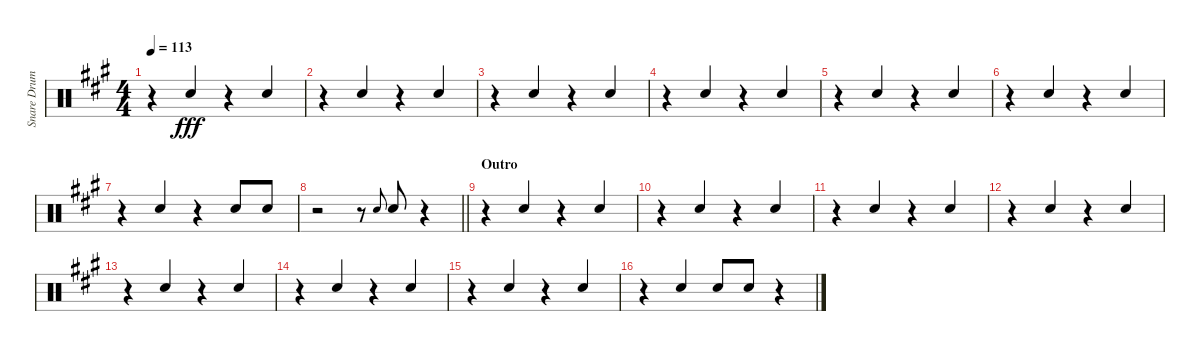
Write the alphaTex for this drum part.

\track ("Snare Drum" "Snare Drum") {instrument percussion}
\staff {score}
\articulation defaults
\ts (4 4)
\tempo 113
\clef neutral
\ks f#minor
r.4{dy fff} "Electric Snare (hit)".4{beam Up} r.4 "Electric Snare (hit)".4{beam Up} |
r.4 "Electric Snare (hit)".4{beam Up} r.4 "Electric Snare (hit)".4{beam Up} |
r.4 "Electric Snare (hit)".4{beam Up} r.4 "Electric Snare (hit)".4{beam Up} |
r.4 "Electric Snare (hit)".4{beam Up} r.4 "Electric Snare (hit)".4{beam Up} |
r.4 "Electric Snare (hit)".4{beam Up} r.4 "Electric Snare (hit)".4{beam Up} |
r.4 "Electric Snare (hit)".4{beam Up} r.4 "Electric Snare (hit)".4{beam Up} |
r.4 "Electric Snare (hit)".4{beam Up} r.4 "Electric Snare (hit)".8{beam Up} "Electric Snare (hit)".8{beam Up} |
\barLineRight lightlight
r.2 r.8 "Electric Snare (hit)".8{gr onbeat} "Electric Snare (hit)".8{beam Up} r.4 |
\section ("" "Outro")
r.4 "Electric Snare (hit)".4{beam Up} r.4 "Electric Snare (hit)".4{beam Up} |
r.4 "Electric Snare (hit)".4{beam Up} r.4 "Electric Snare (hit)".4{beam Up} |
r.4 "Electric Snare (hit)".4{beam Up} r.4 "Electric Snare (hit)".4{beam Up} |
r.4 "Electric Snare (hit)".4{beam Up} r.4 "Electric Snare (hit)".4{beam Up} |
r.4 "Electric Snare (hit)".4{beam Up} r.4 "Electric Snare (hit)".4{beam Up} |
r.4 "Electric Snare (hit)".4{beam Up} r.4 "Electric Snare (hit)".4{beam Up} |
r.4 "Electric Snare (hit)".4{beam Up} r.4 "Electric Snare (hit)".4{beam Up} |
r.4 "Electric Snare (hit)".4{beam Up} "Electric Snare (hit)".8{beam Up} "Electric Snare (hit)".8{beam Up} r.4{volume 0}
